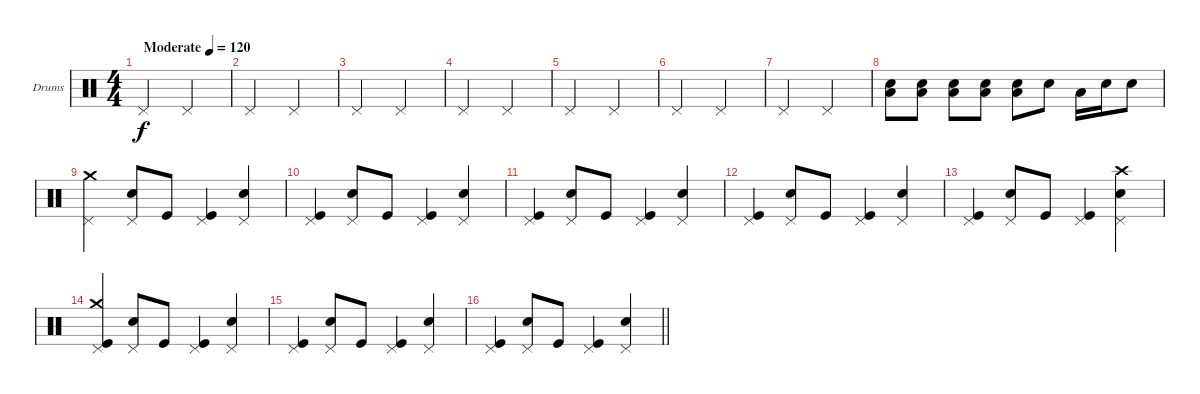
\bracketExtendMode groupsimilarinstruments
\firstSystemTrackNameOrientation horizontal
\otherSystemsTrackNameOrientation horizontal
\track ("Drumkit" "Drums") {instrument percussion}
\staff {score}
\articulation defaults
\ts (4 4)
\beaming (8 2 2 2 2)
\tempo (120 "Moderate")
\clef neutral
\ks c "Pedal Hi-Hat (hit)".2{dy f} "Pedal Hi-Hat (hit)".2
|
"Pedal Hi-Hat (hit)".2 "Pedal Hi-Hat (hit)".2 |
"Pedal Hi-Hat (hit)".2 "Pedal Hi-Hat (hit)".2 |
"Pedal Hi-Hat (hit)".2 "Pedal Hi-Hat (hit)".2 |
"Pedal Hi-Hat (hit)".2 "Pedal Hi-Hat (hit)".2 |
"Pedal Hi-Hat (hit)".2 "Pedal Hi-Hat (hit)".2 |
"Pedal Hi-Hat (hit)".2 "Pedal Hi-Hat (hit)".2 |
("Snare (hit) 2" "Low Tom (hit)").8 ("Snare (hit) 2" "Low Tom (hit)").8 ("Snare (hit) 2" "Low Tom (hit)").8 ("Snare (hit) 2" "Low Tom (hit)").8 ("Snare (hit) 2" "Low Tom (hit)").8 "Snare (hit) 2".8 "Low Tom (hit)".16 "Snare (hit) 2".16 "Snare (hit) 2".8 |
("Crash medium (hit)" "Pedal Hi-Hat (hit)").4 ("Snare (hit) 2" "Pedal Hi-Hat (hit)").8 "Kick (hit)".8 ("Kick (hit)" "Pedal Hi-Hat (hit)").4 ("Snare (hit) 2" "Pedal Hi-Hat (hit)").4 |
("Kick (hit)" "Pedal Hi-Hat (hit)").4 ("Snare (hit) 2" "Pedal Hi-Hat (hit)").8 "Kick (hit)".8 ("Kick (hit)" "Pedal Hi-Hat (hit)").4 ("Snare (hit) 2" "Pedal Hi-Hat (hit)").4 |
("Kick (hit)" "Pedal Hi-Hat (hit)").4 ("Snare (hit) 2" "Pedal Hi-Hat (hit)").8 "Kick (hit)".8 ("Kick (hit)" "Pedal Hi-Hat (hit)").4 ("Snare (hit) 2" "Pedal Hi-Hat (hit)").4 |
("Kick (hit)" "Pedal Hi-Hat (hit)").4 ("Snare (hit) 2" "Pedal Hi-Hat (hit)").8 "Kick (hit)".8 ("Kick (hit)" "Pedal Hi-Hat (hit)").4 ("Snare (hit) 2" "Pedal Hi-Hat (hit)").4 |
("Kick (hit)" "Pedal Hi-Hat (hit)").4 ("Snare (hit) 2" "Pedal Hi-Hat (hit)").8 "Kick (hit)".8 ("Kick (hit)" "Pedal Hi-Hat (hit)").4 ("Snare (hit) 2" "Crash high (hit)" "Pedal Hi-Hat (hit)").4 |
("Kick (hit)" "Crash medium (hit)" "Pedal Hi-Hat (hit)").4 ("Snare (hit) 2" "Pedal Hi-Hat (hit)").8 "Kick (hit)".8 ("Kick (hit)" "Pedal Hi-Hat (hit)").4 ("Snare (hit) 2" "Pedal Hi-Hat (hit)").4 |
("Kick (hit)" "Pedal Hi-Hat (hit)").4 ("Snare (hit) 2" "Pedal Hi-Hat (hit)").8 "Kick (hit)".8 ("Kick (hit)" "Pedal Hi-Hat (hit)").4 ("Snare (hit) 2" "Pedal Hi-Hat (hit)").4 |
\barLineRight lightlight
("Kick (hit)" "Pedal Hi-Hat (hit)").4 ("Snare (hit) 2" "Pedal Hi-Hat (hit)").8 "Kick (hit)".8 ("Kick (hit)" "Pedal Hi-Hat (hit)").4 ("Snare (hit) 2" "Pedal Hi-Hat (hit)").4
